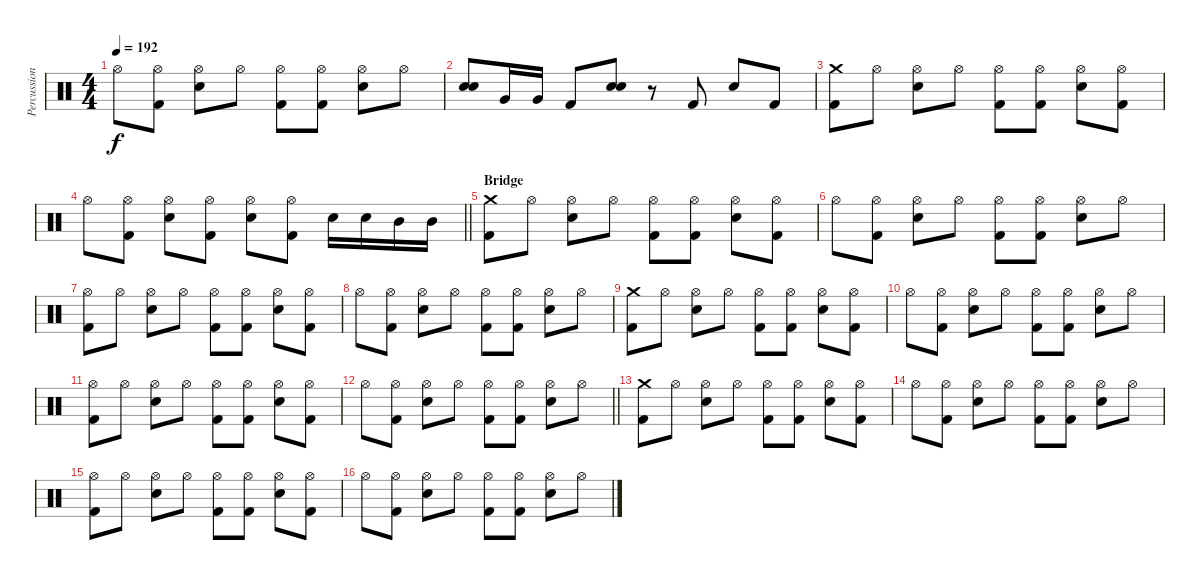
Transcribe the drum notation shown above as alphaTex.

\track ("Percussion" "Percussion") {instrument percussion}
\staff {score}
\articulation defaults
\ts (4 4)
\tempo 192
\clef neutral
\ks c "Hi-Hat (open)".8{dy f}
("Hi-Hat (open)" "Kick (hit) 2").8 ("Hi-Hat (open)" "Electric Snare (hit)").8 "Hi-Hat (open)".8 ("Hi-Hat (open)" "Kick (hit) 2").8 ("Hi-Hat (open)" "Kick (hit) 2").8 ("Hi-Hat (open)" "Electric Snare (hit)").8 "Hi-Hat (open)".8 |
("Electric Snare (hit)" "Electric Snare (hit)").8 "Very Low Tom (hit)".16 "Very Low Tom (hit)".16 "Kick (hit) 2".8 ("Electric Snare (hit)" "Electric Snare (hit)").8 r.8 "Kick (hit) 2".8 "Electric Snare (hit)".8 "Kick (hit) 2".8 |
("Crash medium (hit)" "Kick (hit) 2").8 "Hi-Hat (open)".8 ("Hi-Hat (open)" "Electric Snare (hit)").8 "Hi-Hat (open)".8 ("Hi-Hat (open)" "Kick (hit) 2").8 ("Hi-Hat (open)" "Kick (hit) 2").8 ("Hi-Hat (open)" "Electric Snare (hit)").8 ("Hi-Hat (open)" "Kick (hit) 2").8 |
\barLineRight lightlight "Hi-Hat (open)".8
("Hi-Hat (open)" "Kick (hit) 2").8 ("Hi-Hat (open)" "Electric Snare (hit)").8 ("Hi-Hat (open)" "Kick (hit) 2").8 ("Hi-Hat (open)" "Electric Snare (hit)").8 ("Hi-Hat (open)" "Kick (hit) 2").8 "Electric Snare (hit)".16 "Electric Snare (hit)".16 "Mid Tom (hit)".16 "Mid Tom (hit)".16 |
\section ("" "Bridge")
("Crash medium (hit)" "Kick (hit) 2").8 "Hi-Hat (open)".8 ("Hi-Hat (open)" "Electric Snare (hit)").8 "Hi-Hat (open)".8 ("Hi-Hat (open)" "Kick (hit) 2").8 ("Hi-Hat (open)" "Kick (hit) 2").8 ("Hi-Hat (open)" "Electric Snare (hit)").8 ("Hi-Hat (open)" "Kick (hit) 2").8 |
"Hi-Hat (open)".8 ("Hi-Hat (open)" "Kick (hit) 2").8 ("Hi-Hat (open)" "Electric Snare (hit)").8 "Hi-Hat (open)".8 ("Hi-Hat (open)" "Kick (hit) 2").8 ("Hi-Hat (open)" "Kick (hit) 2").8 ("Hi-Hat (open)" "Electric Snare (hit)").8 "Hi-Hat (open)".8 |
("Hi-Hat (open)" "Kick (hit) 2").8 "Hi-Hat (open)".8 ("Hi-Hat (open)" "Electric Snare (hit)").8 "Hi-Hat (open)".8 ("Hi-Hat (open)" "Kick (hit) 2").8 ("Hi-Hat (open)" "Kick (hit) 2").8 ("Hi-Hat (open)" "Electric Snare (hit)").8 ("Hi-Hat (open)" "Kick (hit) 2").8 |
"Hi-Hat (open)".8 ("Hi-Hat (open)" "Kick (hit) 2").8 ("Hi-Hat (open)" "Electric Snare (hit)").8 "Hi-Hat (open)".8 ("Hi-Hat (open)" "Kick (hit) 2").8 ("Hi-Hat (open)" "Kick (hit) 2").8 ("Hi-Hat (open)" "Electric Snare (hit)").8 "Hi-Hat (open)".8 |
("Crash medium (hit)" "Kick (hit) 2").8 "Hi-Hat (open)".8 ("Hi-Hat (open)" "Electric Snare (hit)").8 "Hi-Hat (open)".8 ("Hi-Hat (open)" "Kick (hit) 2").8 ("Hi-Hat (open)" "Kick (hit) 2").8 ("Hi-Hat (open)" "Electric Snare (hit)").8 ("Hi-Hat (open)" "Kick (hit) 2").8 |
"Hi-Hat (open)".8 ("Hi-Hat (open)" "Kick (hit) 2").8 ("Hi-Hat (open)" "Electric Snare (hit)").8 "Hi-Hat (open)".8 ("Hi-Hat (open)" "Kick (hit) 2").8 ("Hi-Hat (open)" "Kick (hit) 2").8 ("Hi-Hat (open)" "Electric Snare (hit)").8 "Hi-Hat (open)".8 |
("Hi-Hat (open)" "Kick (hit) 2").8 "Hi-Hat (open)".8 ("Hi-Hat (open)" "Electric Snare (hit)").8 "Hi-Hat (open)".8 ("Hi-Hat (open)" "Kick (hit) 2").8 ("Hi-Hat (open)" "Kick (hit) 2").8 ("Hi-Hat (open)" "Electric Snare (hit)").8 ("Hi-Hat (open)" "Kick (hit) 2").8 |
\barLineRight lightlight "Hi-Hat (open)".8
("Hi-Hat (open)" "Kick (hit) 2").8 ("Hi-Hat (open)" "Electric Snare (hit)").8 "Hi-Hat (open)".8 ("Hi-Hat (open)" "Kick (hit) 2").8 ("Hi-Hat (open)" "Kick (hit) 2").8 ("Hi-Hat (open)" "Electric Snare (hit)").8 "Hi-Hat (open)".8 |
("Crash medium (hit)" "Kick (hit) 2").8 "Hi-Hat (open)".8 ("Hi-Hat (open)" "Electric Snare (hit)").8 "Hi-Hat (open)".8 ("Hi-Hat (open)" "Kick (hit) 2").8 ("Hi-Hat (open)" "Kick (hit) 2").8 ("Hi-Hat (open)" "Electric Snare (hit)").8 ("Hi-Hat (open)" "Kick (hit) 2").8 |
"Hi-Hat (open)".8 ("Hi-Hat (open)" "Kick (hit) 2").8 ("Hi-Hat (open)" "Electric Snare (hit)").8 "Hi-Hat (open)".8 ("Hi-Hat (open)" "Kick (hit) 2").8 ("Hi-Hat (open)" "Kick (hit) 2").8 ("Hi-Hat (open)" "Electric Snare (hit)").8 "Hi-Hat (open)".8 |
("Hi-Hat (open)" "Kick (hit) 2").8 "Hi-Hat (open)".8 ("Hi-Hat (open)" "Electric Snare (hit)").8 "Hi-Hat (open)".8 ("Hi-Hat (open)" "Kick (hit) 2").8 ("Hi-Hat (open)" "Kick (hit) 2").8 ("Hi-Hat (open)" "Electric Snare (hit)").8 ("Hi-Hat (open)" "Kick (hit) 2").8 |
"Hi-Hat (open)".8 ("Hi-Hat (open)" "Kick (hit) 2").8 ("Hi-Hat (open)" "Electric Snare (hit)").8 "Hi-Hat (open)".8 ("Hi-Hat (open)" "Kick (hit) 2").8 ("Hi-Hat (open)" "Kick (hit) 2").8 ("Hi-Hat (open)" "Electric Snare (hit)").8 "Hi-Hat (open)".8
